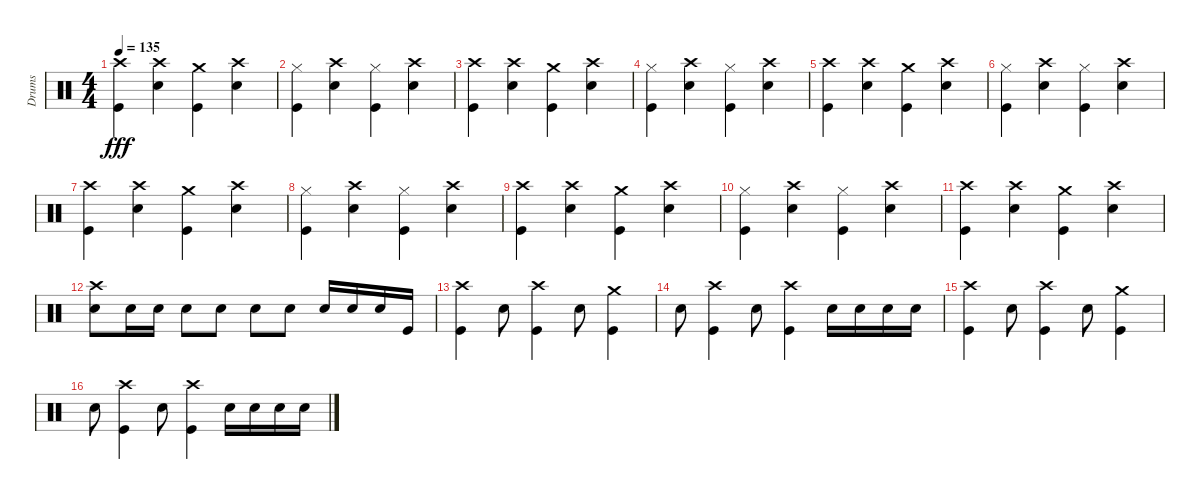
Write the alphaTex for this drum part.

\track ("Drums" "Drums") {instrument percussion}
\staff {score}
\articulation defaults
\ts (4 4)
\tempo 135
\clef neutral
\ks c
("Kick (hit)" "Crash high (hit)").4{dy fff} ("Crash high (hit)" "Snare (hit) 2").4 ("Kick (hit)" "Crash medium (hit)").4 ("Crash high (hit)" "Snare (hit) 2").4 |
("Kick (hit)" "Hi-Hat (closed)").4 ("Crash high (hit)" "Snare (hit) 2").4 ("Kick (hit)" "Hi-Hat (closed)").4 ("Snare (hit) 2" "Crash high (hit)").4 |
("Kick (hit)" "Crash high (hit)").4 ("Crash high (hit)" "Snare (hit) 2").4 ("Kick (hit)" "Crash medium (hit)").4 ("Crash high (hit)" "Snare (hit) 2").4 |
("Kick (hit)" "Hi-Hat (closed)").4 ("Crash high (hit)" "Snare (hit) 2").4 ("Kick (hit)" "Hi-Hat (closed)").4 ("Snare (hit) 2" "Crash high (hit)").4 |
("Kick (hit)" "Crash high (hit)").4 ("Crash high (hit)" "Snare (hit) 2").4 ("Kick (hit)" "Crash medium (hit)").4 ("Crash high (hit)" "Snare (hit) 2").4 |
("Kick (hit)" "Hi-Hat (closed)").4 ("Crash high (hit)" "Snare (hit) 2").4 ("Kick (hit)" "Hi-Hat (closed)").4 ("Snare (hit) 2" "Crash high (hit)").4 |
("Kick (hit)" "Crash high (hit)").4 ("Crash high (hit)" "Snare (hit) 2").4 ("Kick (hit)" "Crash medium (hit)").4 ("Crash high (hit)" "Snare (hit) 2").4 |
("Kick (hit)" "Hi-Hat (closed)").4 ("Crash high (hit)" "Snare (hit) 2").4 ("Kick (hit)" "Hi-Hat (closed)").4 ("Snare (hit) 2" "Crash high (hit)").4 |
("Kick (hit)" "Crash high (hit)").4 ("Crash high (hit)" "Snare (hit) 2").4 ("Kick (hit)" "Crash medium (hit)").4 ("Crash high (hit)" "Snare (hit) 2").4 |
("Kick (hit)" "Hi-Hat (closed)").4 ("Crash high (hit)" "Snare (hit) 2").4 ("Kick (hit)" "Hi-Hat (closed)").4 ("Snare (hit) 2" "Crash high (hit)").4 |
("Kick (hit)" "Crash high (hit)").4 ("Crash high (hit)" "Snare (hit) 2").4 ("Kick (hit)" "Crash medium (hit)").4 ("Crash high (hit)" "Snare (hit) 2").4 |
("Snare (hit) 2" "Crash high (hit)").8 "Snare (hit) 2".16 "Snare (hit) 2".16 "Snare (hit) 2".8 "Snare (hit) 2".8 "Snare (hit) 2".8 "Snare (hit) 2".8 "Snare (hit) 2".16 "Snare (hit) 2".16 "Snare (hit) 2".16 "Kick (hit)".16 |
("Kick (hit)" "Crash high (hit)").4 "Snare (hit) 2".8 ("Kick (hit)" "Crash high (hit)").4 "Snare (hit) 2".8 ("Crash medium (hit)" "Kick (hit)").4 |
"Snare (hit) 2".8 ("Kick (hit)" "Crash high (hit)").4 "Snare (hit) 2".8 ("Kick (hit)" "Crash high (hit)").4 "Snare (hit) 2".16 "Snare (hit) 2".16 "Snare (hit) 2".16 "Snare (hit) 2".16 |
("Kick (hit)" "Crash high (hit)").4 "Snare (hit) 2".8 ("Kick (hit)" "Crash high (hit)").4 "Snare (hit) 2".8 ("Crash medium (hit)" "Kick (hit)").4 |
"Snare (hit) 2".8 ("Kick (hit)" "Crash high (hit)").4 "Snare (hit) 2".8 ("Kick (hit)" "Crash high (hit)").4 "Snare (hit) 2".16 "Snare (hit) 2".16 "Snare (hit) 2".16 "Snare (hit) 2".16
